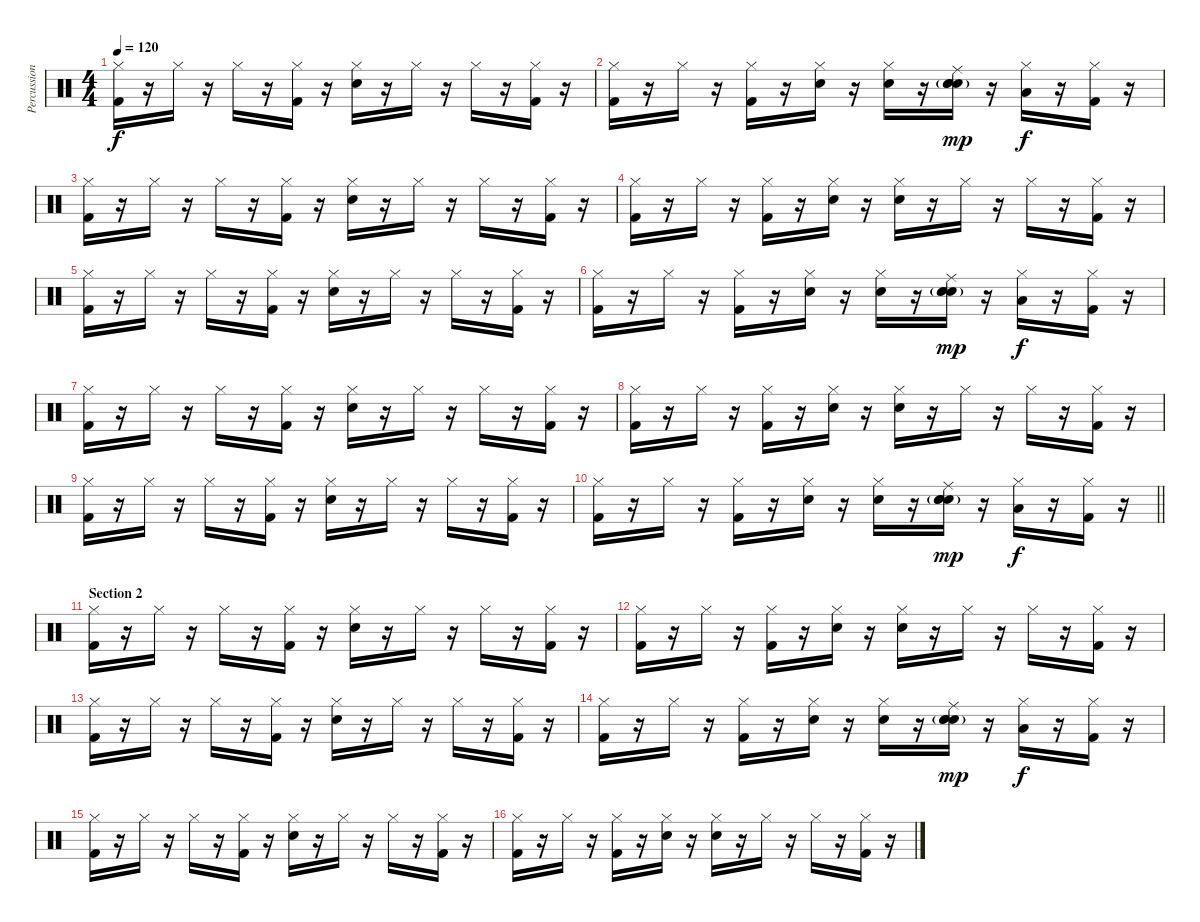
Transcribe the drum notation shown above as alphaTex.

\track ("Percussion" "Percussion") {instrument percussion}
\staff {score}
\articulation defaults
\ts (4 4)
\tempo 120
\clef neutral
\ks c
("Hi-Hat (closed)" "Kick (hit) 2").16{dy f} r.16 "Hi-Hat (closed)".16 r.16 "Hi-Hat (closed)".16 r.16 ("Hi-Hat (closed)" "Kick (hit) 2").16 r.16 ("Hi-Hat (closed)" "Snare (hit) 2").16 r.16 "Hi-Hat (closed)".16 r.16 "Hi-Hat (closed)".16 r.16 ("Hi-Hat (closed)" "Kick (hit) 2").16 r.16 |
("Hi-Hat (closed)" "Kick (hit) 2").16 r.16 "Hi-Hat (closed)".16 r.16 ("Hi-Hat (closed)" "Kick (hit) 2").16 r.16 ("Hi-Hat (closed)" "Snare (hit)").16 r.16 ("Hi-Hat (closed)" "Snare (hit) 2").16 r.16 ("Ride (middle)" "Snare (hit)"{g} "Electric Snare (hit)"{g} "Snare (hit) 2"{g}).16{dy mp} r.16 ("Hi-Hat (closed)" "Low Floor Tom (hit)").16{dy f} r.16 ("Hi-Hat (closed)" "Kick (hit) 2").16 r.16 |
("Hi-Hat (closed)" "Kick (hit) 2").16 r.16 "Hi-Hat (closed)".16 r.16 "Hi-Hat (closed)".16 r.16 ("Hi-Hat (closed)" "Kick (hit) 2").16 r.16 ("Hi-Hat (closed)" "Snare (hit) 2").16 r.16 "Hi-Hat (closed)".16 r.16 "Hi-Hat (closed)".16 r.16 ("Hi-Hat (closed)" "Kick (hit) 2").16 r.16 |
("Hi-Hat (closed)" "Kick (hit) 2").16 r.16 "Hi-Hat (closed)".16 r.16 ("Hi-Hat (closed)" "Kick (hit) 2").16 r.16 ("Hi-Hat (closed)" "Snare (hit)").16 r.16 ("Hi-Hat (closed)" "Snare (hit) 2").16 r.16 "Hi-Hat (closed)".16 r.16 "Hi-Hat (closed)".16 r.16 ("Hi-Hat (closed)" "Kick (hit) 2").16 r.16 |
("Hi-Hat (closed)" "Kick (hit) 2").16 r.16 "Hi-Hat (closed)".16 r.16 "Hi-Hat (closed)".16 r.16 ("Hi-Hat (closed)" "Kick (hit) 2").16 r.16 ("Hi-Hat (closed)" "Snare (hit) 2").16 r.16 "Hi-Hat (closed)".16 r.16 "Hi-Hat (closed)".16 r.16 ("Hi-Hat (closed)" "Kick (hit) 2").16 r.16 |
("Hi-Hat (closed)" "Kick (hit) 2").16 r.16 "Hi-Hat (closed)".16 r.16 ("Hi-Hat (closed)" "Kick (hit) 2").16 r.16 ("Hi-Hat (closed)" "Snare (hit)").16 r.16 ("Hi-Hat (closed)" "Snare (hit) 2").16 r.16 ("Ride (middle)" "Snare (hit)"{g} "Electric Snare (hit)"{g} "Snare (hit) 2"{g}).16{dy mp} r.16 ("Hi-Hat (closed)" "Low Floor Tom (hit)").16{dy f} r.16 ("Hi-Hat (closed)" "Kick (hit) 2").16 r.16 |
("Hi-Hat (closed)" "Kick (hit) 2").16 r.16 "Hi-Hat (closed)".16 r.16 "Hi-Hat (closed)".16 r.16 ("Hi-Hat (closed)" "Kick (hit) 2").16 r.16 ("Hi-Hat (closed)" "Snare (hit) 2").16 r.16 "Hi-Hat (closed)".16 r.16 "Hi-Hat (closed)".16 r.16 ("Hi-Hat (closed)" "Kick (hit) 2").16 r.16 |
("Hi-Hat (closed)" "Kick (hit) 2").16 r.16 "Hi-Hat (closed)".16 r.16 ("Hi-Hat (closed)" "Kick (hit) 2").16 r.16 ("Hi-Hat (closed)" "Snare (hit)").16 r.16 ("Hi-Hat (closed)" "Snare (hit) 2").16 r.16 "Hi-Hat (closed)".16 r.16 "Hi-Hat (closed)".16 r.16 ("Hi-Hat (closed)" "Kick (hit) 2").16 r.16 |
("Hi-Hat (closed)" "Kick (hit) 2").16 r.16 "Hi-Hat (closed)".16 r.16 "Hi-Hat (closed)".16 r.16 ("Hi-Hat (closed)" "Kick (hit) 2").16 r.16 ("Hi-Hat (closed)" "Snare (hit) 2").16 r.16 "Hi-Hat (closed)".16 r.16 "Hi-Hat (closed)".16 r.16 ("Hi-Hat (closed)" "Kick (hit) 2").16 r.16 |
\barLineRight lightlight
("Hi-Hat (closed)" "Kick (hit) 2").16 r.16 "Hi-Hat (closed)".16 r.16 ("Hi-Hat (closed)" "Kick (hit) 2").16 r.16 ("Hi-Hat (closed)" "Snare (hit)").16 r.16 ("Hi-Hat (closed)" "Snare (hit) 2").16 r.16 ("Ride (middle)" "Snare (hit)"{g} "Electric Snare (hit)"{g} "Snare (hit) 2"{g}).16{dy mp} r.16 ("Hi-Hat (closed)" "Low Floor Tom (hit)").16{dy f} r.16 ("Hi-Hat (closed)" "Kick (hit) 2").16 r.16 |
\section ("" "Section 2")
("Hi-Hat (closed)" "Kick (hit) 2").16 r.16 "Hi-Hat (closed)".16 r.16 "Hi-Hat (closed)".16 r.16 ("Hi-Hat (closed)" "Kick (hit) 2").16 r.16 ("Hi-Hat (closed)" "Snare (hit) 2").16 r.16 "Hi-Hat (closed)".16 r.16 "Hi-Hat (closed)".16 r.16 ("Hi-Hat (closed)" "Kick (hit) 2").16 r.16 |
("Hi-Hat (closed)" "Kick (hit) 2").16 r.16 "Hi-Hat (closed)".16 r.16 ("Hi-Hat (closed)" "Kick (hit) 2").16 r.16 ("Hi-Hat (closed)" "Snare (hit)").16 r.16 ("Hi-Hat (closed)" "Snare (hit) 2").16 r.16 "Hi-Hat (closed)".16 r.16 "Hi-Hat (closed)".16 r.16 ("Hi-Hat (closed)" "Kick (hit) 2").16 r.16 |
("Hi-Hat (closed)" "Kick (hit) 2").16 r.16 "Hi-Hat (closed)".16 r.16 "Hi-Hat (closed)".16 r.16 ("Hi-Hat (closed)" "Kick (hit) 2").16 r.16 ("Hi-Hat (closed)" "Snare (hit) 2").16 r.16 "Hi-Hat (closed)".16 r.16 "Hi-Hat (closed)".16 r.16 ("Hi-Hat (closed)" "Kick (hit) 2").16 r.16 |
("Hi-Hat (closed)" "Kick (hit) 2").16 r.16 "Hi-Hat (closed)".16 r.16 ("Hi-Hat (closed)" "Kick (hit) 2").16 r.16 ("Hi-Hat (closed)" "Snare (hit)").16 r.16 ("Hi-Hat (closed)" "Snare (hit) 2").16 r.16 ("Ride (middle)" "Snare (hit)"{g} "Electric Snare (hit)"{g} "Snare (hit) 2"{g}).16{dy mp} r.16 ("Hi-Hat (closed)" "Low Floor Tom (hit)").16{dy f} r.16 ("Hi-Hat (closed)" "Kick (hit) 2").16 r.16 |
("Hi-Hat (closed)" "Kick (hit) 2").16 r.16 "Hi-Hat (closed)".16 r.16 "Hi-Hat (closed)".16 r.16 ("Hi-Hat (closed)" "Kick (hit) 2").16 r.16 ("Hi-Hat (closed)" "Snare (hit) 2").16 r.16 "Hi-Hat (closed)".16 r.16 "Hi-Hat (closed)".16 r.16 ("Hi-Hat (closed)" "Kick (hit) 2").16 r.16 |
("Hi-Hat (closed)" "Kick (hit) 2").16 r.16 "Hi-Hat (closed)".16 r.16 ("Hi-Hat (closed)" "Kick (hit) 2").16 r.16 ("Hi-Hat (closed)" "Snare (hit)").16 r.16 ("Hi-Hat (closed)" "Snare (hit) 2").16 r.16 "Hi-Hat (closed)".16 r.16 "Hi-Hat (closed)".16 r.16 ("Hi-Hat (closed)" "Kick (hit) 2").16 r.16
